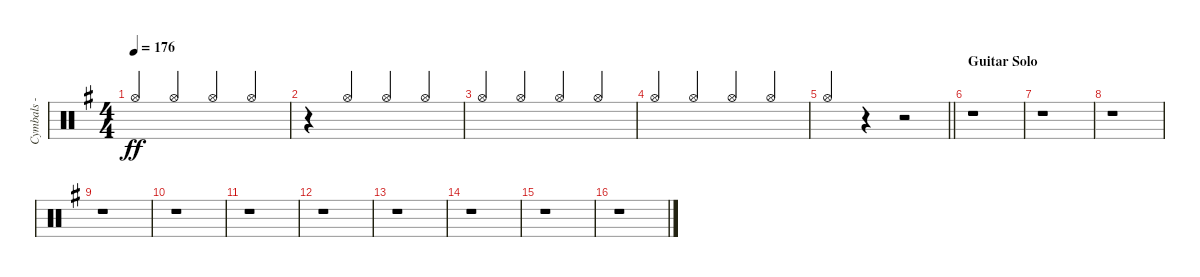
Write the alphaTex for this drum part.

\track ("Cymbals - hi-hat" "Cymbals - ") {instrument percussion}
\staff {score}
\articulation defaults
\ts (4 4)
\tempo 176
\clef neutral
\ks eminor "Hi-Hat (open)".4{dy ff beam Up} "Hi-Hat (open)".4{beam Up} "Hi-Hat (open)".4{beam Up} "Hi-Hat (open)".4{beam Up}
|
r.4 "Hi-Hat (open)".4{beam Up} "Hi-Hat (open)".4{beam Up} "Hi-Hat (open)".4{beam Up} |
"Hi-Hat (open)".4{beam Up} "Hi-Hat (open)".4{beam Up} "Hi-Hat (open)".4{beam Up} "Hi-Hat (open)".4{beam Up} |
"Hi-Hat (open)".4{beam Up} "Hi-Hat (open)".4{beam Up} "Hi-Hat (open)".4{beam Up} "Hi-Hat (open)".4{beam Up} |
\barLineRight lightlight "Hi-Hat (open)".4{beam Up}
r.4 r.2 |
\section ("" "Guitar Solo")
r.1 |
r.1 |
r.1 |
r.1 |
r.1 |
r.1 |
r.1 |
r.1 |
r.1 |
r.1 |
r.1
